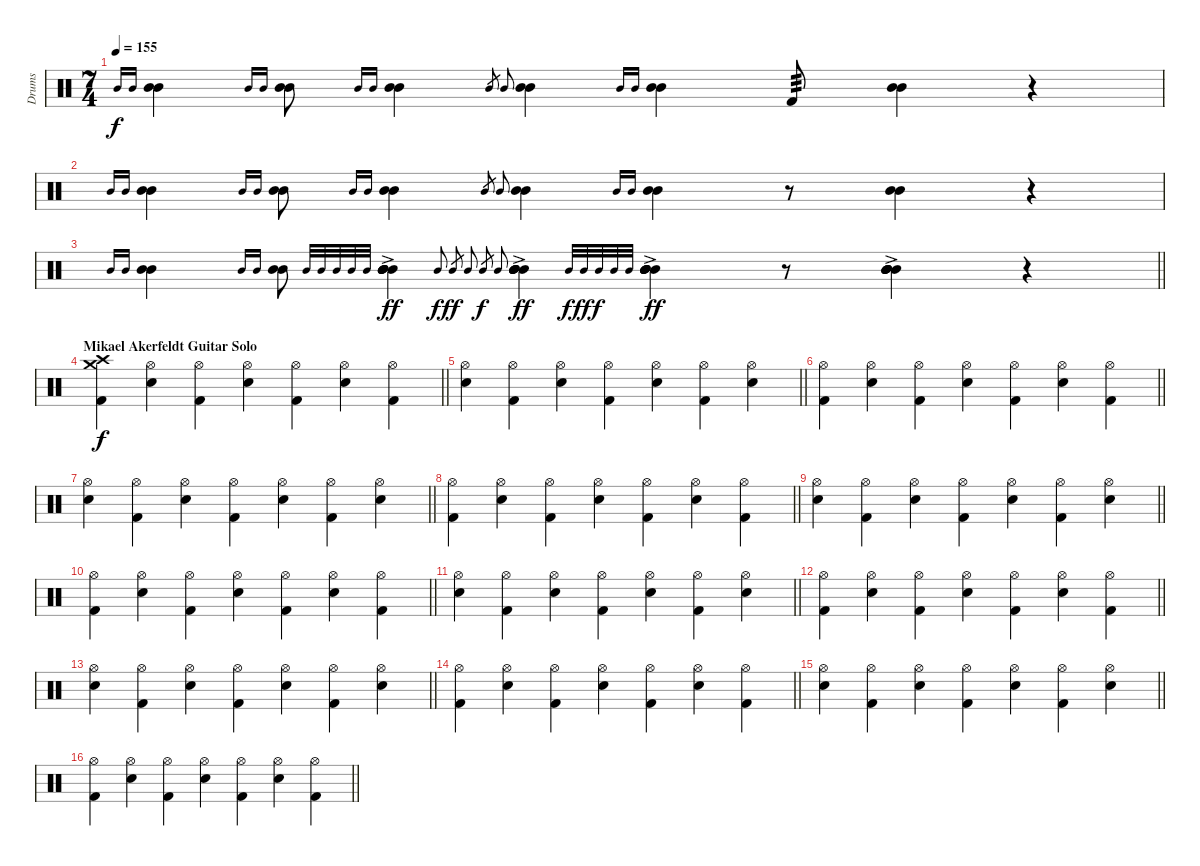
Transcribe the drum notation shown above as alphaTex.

\track ("Drums" "Drums") {instrument percussion}
\staff {score}
\articulation defaults
\ts (7 4)
\tempo 155
\clef neutral
\ks c "Mid Tom (hit)".16{gr onbeat dy f} "Mid Tom (hit)".16{gr onbeat}
("Mid Tom (hit)" "Mid Tom (hit)").4 "Mid Tom (hit)".16{gr onbeat} "Mid Tom (hit)".16{gr onbeat} ("Mid Tom (hit)" "Mid Tom (hit)").8 "Mid Tom (hit)".16{gr onbeat} "Mid Tom (hit)".16{gr onbeat} ("Mid Tom (hit)" "Mid Tom (hit)").4 "Mid Tom (hit)".16{gr} "Mid Tom (hit)".16{gr onbeat} ("Mid Tom (hit)" "Mid Tom (hit)").4 "Mid Tom (hit)".16{gr onbeat} "Mid Tom (hit)".16{gr onbeat} ("Mid Tom (hit)" "Mid Tom (hit)").4 "Kick (hit) 2".8{tp 3} ("Mid Tom (hit)" "Mid Tom (hit)").4 r.4 |
"Mid Tom (hit)".16{gr onbeat} "Mid Tom (hit)".16{gr onbeat} ("Mid Tom (hit)" "Mid Tom (hit)").4 "Mid Tom (hit)".16{gr onbeat} "Mid Tom (hit)".16{gr onbeat} ("Mid Tom (hit)" "Mid Tom (hit)").8 "Mid Tom (hit)".16{gr onbeat} "Mid Tom (hit)".16{gr onbeat} ("Mid Tom (hit)" "Mid Tom (hit)").4 "Mid Tom (hit)".16{gr} "Mid Tom (hit)".16{gr onbeat} ("Mid Tom (hit)" "Mid Tom (hit)").4 "Mid Tom (hit)".16{gr onbeat} "Mid Tom (hit)".16{gr onbeat} ("Mid Tom (hit)" "Mid Tom (hit)").4 r.8 ("Mid Tom (hit)" "Mid Tom (hit)").4 r.4 |
\barLineRight lightlight "Mid Tom (hit)".16{gr onbeat} "Mid Tom (hit)".16{gr onbeat}
("Mid Tom (hit)" "Mid Tom (hit)").4 "Mid Tom (hit)".16{gr onbeat} "Mid Tom (hit)".16{gr onbeat} ("Mid Tom (hit)" "Mid Tom (hit)").8 "Mid Tom (hit)".32{gr onbeat} "Mid Tom (hit)".32{gr onbeat} "Mid Tom (hit)".32{gr onbeat} "Mid Tom (hit)".32{gr onbeat} "Mid Tom (hit)".32{gr onbeat} ("Mid Tom (hit)"{ac} "Mid Tom (hit)"{ac} "Mid Tom (hit)"{ac} "Mid Tom (hit)"{ac} "Mid Tom (hit)"{ac}).4{dy ff} "Mid Tom (hit)".32{gr onbeat dy f} "Mid Tom (hit)".32{gr dy ff} "Mid Tom (hit)".32{gr onbeat} "Mid Tom (hit)".32{gr dy f} "Mid Tom (hit)".32{gr onbeat} ("Mid Tom (hit)"{ac} "Mid Tom (hit)"{ac} "Mid Tom (hit)"{ac} "Mid Tom (hit)"{ac} "Mid Tom (hit)"{ac}).4{dy ff} "Mid Tom (hit)".32{gr onbeat dy f} "Mid Tom (hit)".32{gr onbeat dy ff} "Mid Tom (hit)".32{gr onbeat dy f} "Mid Tom (hit)".32{gr onbeat} "Mid Tom (hit)".32{gr onbeat} ("Mid Tom (hit)"{ac} "Mid Tom (hit)"{ac} "Mid Tom (hit)"{ac} "Mid Tom (hit)"{ac} "Mid Tom (hit)"{ac}).4{dy ff} r.8 ("Mid Tom (hit)"{ac} "Mid Tom (hit)"{ac} "Mid Tom (hit)"{ac} "Mid Tom (hit)"{ac} "Mid Tom (hit)"{ac}).4 r.4 |
\section ("" "Mikael Akerfeldt Guitar Solo")
\barLineRight lightlight
("Crash medium (hit)" "Crash high (hit)" "Kick (hit) 2").4{dy f volume 16} ("Hi-Hat (open)" "Electric Snare (hit)").4 ("Hi-Hat (open)" "Kick (hit) 2").4 ("Hi-Hat (open)" "Electric Snare (hit)").4 ("Hi-Hat (open)" "Kick (hit) 2").4 ("Hi-Hat (open)" "Electric Snare (hit)").4 ("Hi-Hat (open)" "Kick (hit) 2").4 |
\barLineRight lightlight
("Hi-Hat (open)" "Electric Snare (hit)").4 ("Hi-Hat (open)" "Kick (hit) 2").4 ("Hi-Hat (open)" "Electric Snare (hit)").4 ("Hi-Hat (open)" "Kick (hit) 2").4 ("Hi-Hat (open)" "Electric Snare (hit)").4 ("Hi-Hat (open)" "Kick (hit) 2").4 ("Hi-Hat (open)" "Electric Snare (hit)").4 |
\barLineRight lightlight
("Hi-Hat (open)" "Kick (hit) 2").4 ("Hi-Hat (open)" "Electric Snare (hit)").4 ("Hi-Hat (open)" "Kick (hit) 2").4 ("Hi-Hat (open)" "Electric Snare (hit)").4 ("Hi-Hat (open)" "Kick (hit) 2").4 ("Hi-Hat (open)" "Electric Snare (hit)").4 ("Hi-Hat (open)" "Kick (hit) 2").4 |
\barLineRight lightlight
("Hi-Hat (open)" "Electric Snare (hit)").4 ("Hi-Hat (open)" "Kick (hit) 2").4 ("Hi-Hat (open)" "Electric Snare (hit)").4 ("Hi-Hat (open)" "Kick (hit) 2").4 ("Hi-Hat (open)" "Electric Snare (hit)").4 ("Hi-Hat (open)" "Kick (hit) 2").4 ("Hi-Hat (open)" "Electric Snare (hit)").4 |
\barLineRight lightlight
("Hi-Hat (open)" "Kick (hit) 2").4 ("Hi-Hat (open)" "Electric Snare (hit)").4 ("Hi-Hat (open)" "Kick (hit) 2").4 ("Hi-Hat (open)" "Electric Snare (hit)").4 ("Hi-Hat (open)" "Kick (hit) 2").4 ("Hi-Hat (open)" "Electric Snare (hit)").4 ("Hi-Hat (open)" "Kick (hit) 2").4 |
\barLineRight lightlight
("Hi-Hat (open)" "Electric Snare (hit)").4 ("Hi-Hat (open)" "Kick (hit) 2").4 ("Hi-Hat (open)" "Electric Snare (hit)").4 ("Hi-Hat (open)" "Kick (hit) 2").4 ("Hi-Hat (open)" "Electric Snare (hit)").4 ("Hi-Hat (open)" "Kick (hit) 2").4 ("Hi-Hat (open)" "Electric Snare (hit)").4 |
\barLineRight lightlight
("Hi-Hat (open)" "Kick (hit) 2").4 ("Hi-Hat (open)" "Electric Snare (hit)").4 ("Hi-Hat (open)" "Kick (hit) 2").4 ("Hi-Hat (open)" "Electric Snare (hit)").4 ("Hi-Hat (open)" "Kick (hit) 2").4 ("Hi-Hat (open)" "Electric Snare (hit)").4 ("Hi-Hat (open)" "Kick (hit) 2").4 |
\barLineRight lightlight
("Hi-Hat (open)" "Electric Snare (hit)").4 ("Hi-Hat (open)" "Kick (hit) 2").4 ("Hi-Hat (open)" "Electric Snare (hit)").4 ("Hi-Hat (open)" "Kick (hit) 2").4 ("Hi-Hat (open)" "Electric Snare (hit)").4 ("Hi-Hat (open)" "Kick (hit) 2").4 ("Hi-Hat (open)" "Electric Snare (hit)").4 |
\barLineRight lightlight
("Hi-Hat (open)" "Kick (hit) 2").4 ("Hi-Hat (open)" "Electric Snare (hit)").4 ("Hi-Hat (open)" "Kick (hit) 2").4 ("Hi-Hat (open)" "Electric Snare (hit)").4 ("Hi-Hat (open)" "Kick (hit) 2").4 ("Hi-Hat (open)" "Electric Snare (hit)").4 ("Hi-Hat (open)" "Kick (hit) 2").4 |
\barLineRight lightlight
("Hi-Hat (open)" "Electric Snare (hit)").4 ("Hi-Hat (open)" "Kick (hit) 2").4 ("Hi-Hat (open)" "Electric Snare (hit)").4 ("Hi-Hat (open)" "Kick (hit) 2").4 ("Hi-Hat (open)" "Electric Snare (hit)").4 ("Hi-Hat (open)" "Kick (hit) 2").4 ("Hi-Hat (open)" "Electric Snare (hit)").4 |
\barLineRight lightlight
("Hi-Hat (open)" "Kick (hit) 2").4 ("Hi-Hat (open)" "Electric Snare (hit)").4 ("Hi-Hat (open)" "Kick (hit) 2").4 ("Hi-Hat (open)" "Electric Snare (hit)").4 ("Hi-Hat (open)" "Kick (hit) 2").4 ("Hi-Hat (open)" "Electric Snare (hit)").4 ("Hi-Hat (open)" "Kick (hit) 2").4 |
\barLineRight lightlight
("Hi-Hat (open)" "Electric Snare (hit)").4 ("Hi-Hat (open)" "Kick (hit) 2").4 ("Hi-Hat (open)" "Electric Snare (hit)").4 ("Hi-Hat (open)" "Kick (hit) 2").4 ("Hi-Hat (open)" "Electric Snare (hit)").4 ("Hi-Hat (open)" "Kick (hit) 2").4 ("Hi-Hat (open)" "Electric Snare (hit)").4 |
\barLineRight lightlight
("Hi-Hat (open)" "Kick (hit) 2").4 ("Hi-Hat (open)" "Electric Snare (hit)").4 ("Hi-Hat (open)" "Kick (hit) 2").4 ("Hi-Hat (open)" "Electric Snare (hit)").4 ("Hi-Hat (open)" "Kick (hit) 2").4 ("Hi-Hat (open)" "Electric Snare (hit)").4 ("Hi-Hat (open)" "Kick (hit) 2").4
